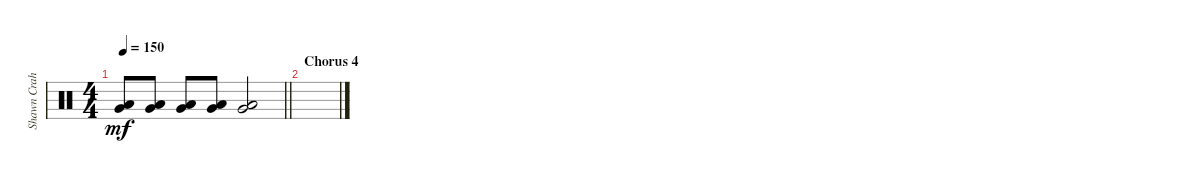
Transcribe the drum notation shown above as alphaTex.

\track ("Shawn Crahan" "Shawn Crah") {instrument percussion}
\staff {score}
\articulation defaults
\ts (4 4)
\tempo 150
\clef neutral
\barLineRight lightlight
\ks c
("Very Low Tom (hit)" "Low Floor Tom (hit)").8{dy mf} ("Very Low Tom (hit)" "Low Floor Tom (hit)").8 ("Very Low Tom (hit)" "Low Floor Tom (hit)").8 ("Very Low Tom (hit)" "Low Floor Tom (hit)").8 ("Very Low Tom (hit)" "Low Floor Tom (hit)").2 |
\section ("" "Chorus 4")
